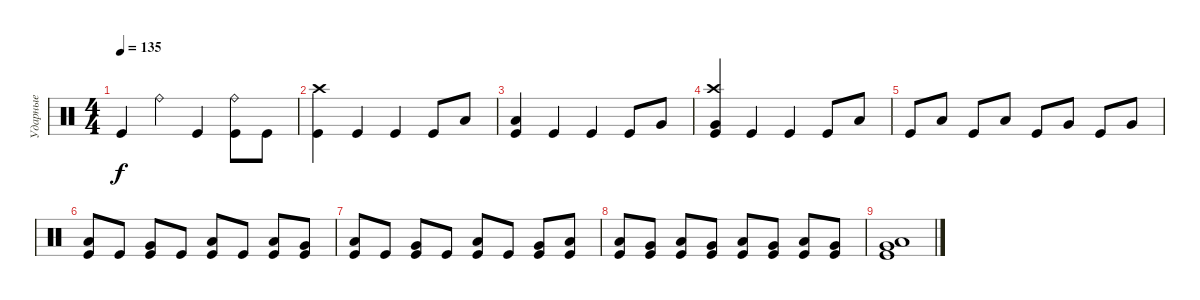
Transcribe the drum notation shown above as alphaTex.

\track ("Ударные" "Ударные") {instrument percussion}
\staff {score}
\articulation defaults
\ts (4 4)
\tempo 135
\clef neutral
\ks c "Kick (hit)".4{dy f} "Ride (bell)".4 "Kick (hit)".4
("Ride (bell)" "Kick (hit)").8 "Kick (hit)".8 |
("Crash high (hit)" "Kick (hit)").4 "Kick (hit)".4 "Kick (hit)".4 "Kick (hit)".8 "Low Tom (hit)".8 |
("Low Tom (hit)" "Kick (hit)").4 "Kick (hit)".4 "Kick (hit)".4 "Kick (hit)".8 "Very Low Tom (hit)".8 |
("Crash high (hit)" "Very Low Tom (hit)" "Kick (hit)").4 "Kick (hit)".4 "Kick (hit)".4 "Kick (hit)".8 "Low Tom (hit)".8 |
"Kick (hit)".8 "Low Tom (hit)".8 "Kick (hit)".8 "Low Tom (hit)".8 "Kick (hit)".8 "Very Low Tom (hit)".8 "Kick (hit)".8 "Very Low Tom (hit)".8 |
("Low Tom (hit)" "Kick (hit)").8 "Kick (hit)".8 ("Very Low Tom (hit)" "Kick (hit)").8 "Kick (hit)".8 ("Low Tom (hit)" "Kick (hit)").8 "Kick (hit)".8 ("Low Tom (hit)" "Kick (hit)").8 ("Very Low Tom (hit)" "Kick (hit)").8 |
("Low Tom (hit)" "Kick (hit)").8 "Kick (hit)".8 ("Very Low Tom (hit)" "Kick (hit)").8 "Kick (hit)".8 ("Low Tom (hit)" "Kick (hit)").8 "Kick (hit)".8 ("Very Low Tom (hit)" "Kick (hit)").8 ("Low Tom (hit)" "Kick (hit)").8 |
("Low Tom (hit)" "Kick (hit)").8 ("Very Low Tom (hit)" "Kick (hit)").8 ("Low Tom (hit)" "Kick (hit)").8 ("Very Low Tom (hit)" "Kick (hit)").8 ("Low Tom (hit)" "Kick (hit)").8 ("Very Low Tom (hit)" "Kick (hit)").8 ("Low Tom (hit)" "Kick (hit)").8 ("Very Low Tom (hit)" "Kick (hit)").8 |
("Very Low Tom (hit)" "Low Tom (hit)" "Kick (hit)").1
